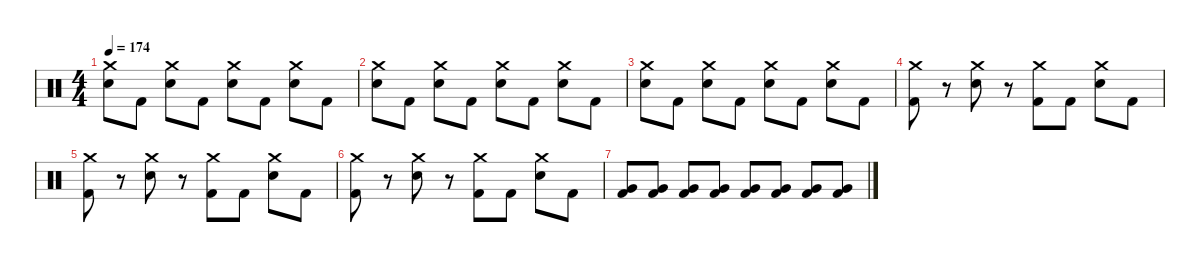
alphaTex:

\defaultSystemsLayout 4
\hideDynamics
\bracketExtendMode nobrackets
\singleTrackTrackNamePolicy hidden
\multiTrackTrackNamePolicy hidden
\firstSystemTrackNameMode fullname
\firstSystemTrackNameOrientation horizontal
\otherSystemsTrackNameOrientation horizontal
\track ("Drums" "drm.") {instrument percussion}
\staff {score}
\articulation defaults
\ts (4 4)
\tempo 174
\clef neutral
\ks c
("Crash medium (hit)" "Snare (hit) 2").8{dy f beam Down} "Kick (hit) 2".8{beam Down} ("Crash medium (hit)" "Snare (hit) 2").8{beam Down} "Kick (hit) 2".8{beam Down} ("Crash medium (hit)" "Snare (hit) 2").8{beam Down} "Kick (hit) 2".8{beam Down} ("Crash medium (hit)" "Snare (hit) 2").8{beam Down} "Kick (hit) 2".8{beam Down} |
("Crash medium (hit)" "Snare (hit) 2").8{beam Down} "Kick (hit) 2".8{beam Down} ("Crash medium (hit)" "Snare (hit) 2").8{beam Down} "Kick (hit) 2".8{beam Down} ("Crash medium (hit)" "Snare (hit) 2").8{beam Down} "Kick (hit) 2".8{beam Down} ("Crash medium (hit)" "Snare (hit) 2").8{beam Down} "Kick (hit) 2".8{beam Down} |
("Crash medium (hit)" "Snare (hit) 2").8{beam Down} "Kick (hit) 2".8{beam Down} ("Crash medium (hit)" "Snare (hit) 2").8{beam Down} "Kick (hit) 2".8{beam Down} ("Crash medium (hit)" "Snare (hit) 2").8{beam Down} "Kick (hit) 2".8{beam Down} ("Crash medium (hit)" "Snare (hit) 2").8{beam Down} "Kick (hit) 2".8{beam Down} |
("Crash medium (hit)" "Kick (hit) 2").8{beam Down} r.8{beam Down} ("Crash medium (hit)" "Snare (hit) 2").8{beam Down} r.8{beam Down} ("Crash medium (hit)" "Kick (hit) 2").8{beam Down} "Kick (hit) 2".8{beam Down} ("Crash medium (hit)" "Snare (hit) 2").8{beam Down} "Kick (hit) 2".8{beam Down} |
("Crash medium (hit)" "Kick (hit) 2").8{beam Down} r.8{beam Down} ("Crash medium (hit)" "Snare (hit) 2").8{beam Down} r.8{beam Down} ("Crash medium (hit)" "Kick (hit) 2").8{beam Down} "Kick (hit) 2".8{beam Down} ("Crash medium (hit)" "Snare (hit) 2").8{beam Down} "Kick (hit) 2".8{beam Down} |
("Crash medium (hit)" "Kick (hit) 2").8{beam Down} r.8{beam Down} ("Crash medium (hit)" "Snare (hit) 2").8{beam Down} r.8{beam Down} ("Crash medium (hit)" "Kick (hit) 2").8{beam Down} "Kick (hit) 2".8{beam Down} ("Crash medium (hit)" "Snare (hit) 2").8{beam Down} "Kick (hit) 2".8{beam Down} |
("Very Low Tom (hit)" "Kick (hit) 2").8{beam Up} ("Very Low Tom (hit)" "Kick (hit) 2").8{beam Up} ("Very Low Tom (hit)" "Kick (hit) 2").8{beam Up} ("Very Low Tom (hit)" "Kick (hit) 2").8{beam Up} ("Very Low Tom (hit)" "Kick (hit) 2").8{beam Up} ("Very Low Tom (hit)" "Kick (hit) 2").8{beam Up} ("Very Low Tom (hit)" "Kick (hit) 2").8{beam Up} ("Very Low Tom (hit)" "Kick (hit) 2").8{beam Up}
